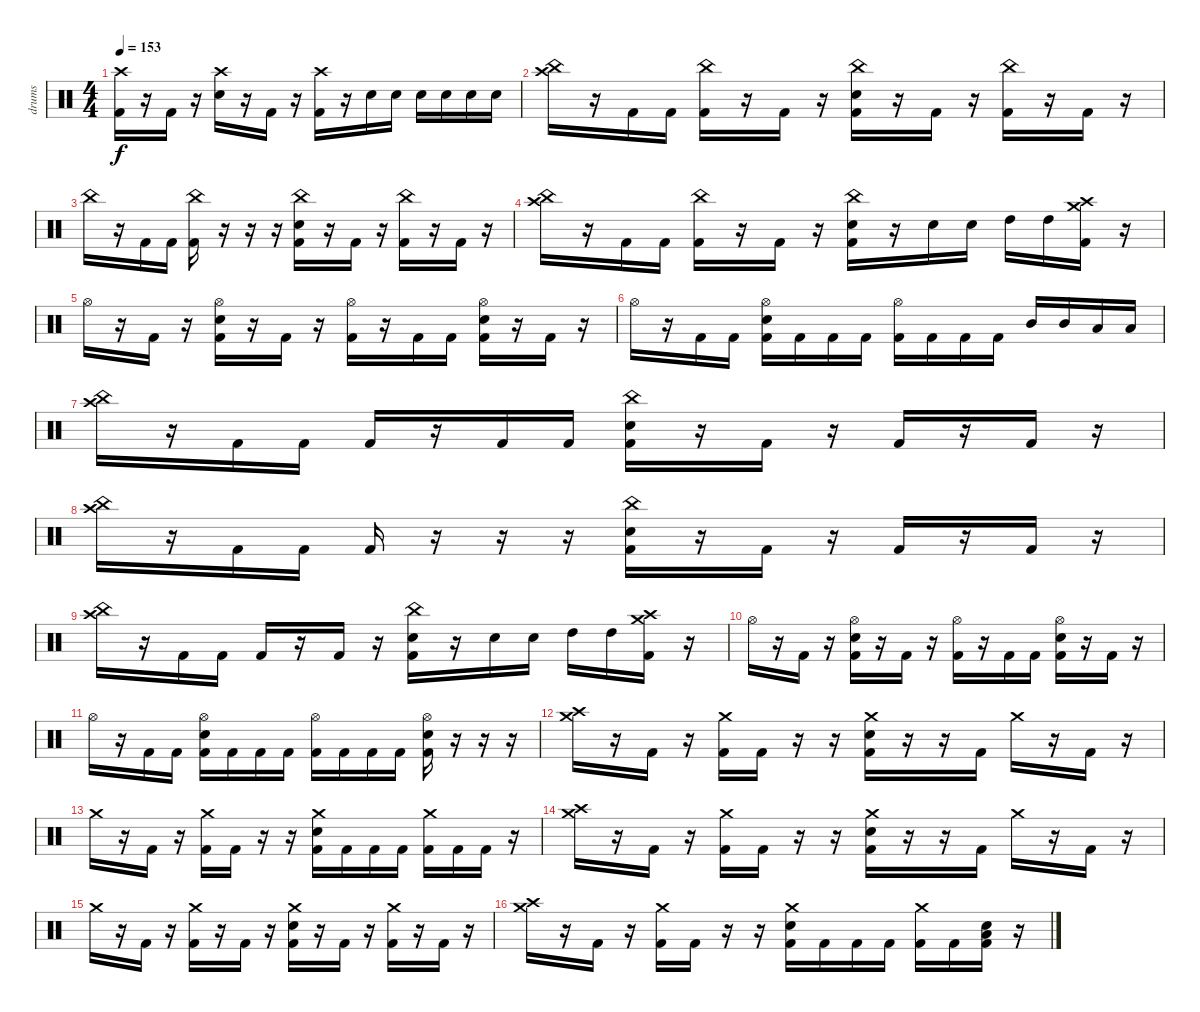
\track ("drums" "drums") {instrument percussion}
\staff {score}
\articulation defaults
\ts (4 4)
\tempo 153
\clef neutral
\ks c
("Crash high (hit)" "Kick (hit) 2").16{dy f} r.16 "Kick (hit) 2".16 r.16 ("Crash high (hit)" "Electric Snare (hit)").16 r.16 "Kick (hit) 2".16 r.16 ("Crash high (hit)" "Kick (hit) 2").16 r.16 "Electric Snare (hit)".16 "Electric Snare (hit)".16 "Electric Snare (hit)".16 "Electric Snare (hit)".16 "Electric Snare (hit)".16 "Electric Snare (hit)".16 |
("China (hit)" "Crash high (hit)").16 r.16 "Kick (hit) 2".16 "Kick (hit) 2".16 ("China (hit)" "Kick (hit) 2").16 r.16 "Kick (hit) 2".16 r.16 ("China (hit)" "Electric Snare (hit)" "Kick (hit) 2").16 r.16 "Kick (hit) 2".16 r.16 ("China (hit)" "Kick (hit) 2").16 r.16 "Kick (hit) 2".16 r.16 |
"China (hit)".16 r.16 "Kick (hit) 2".16 "Kick (hit) 2".16 ("China (hit)" "Kick (hit) 2").16 r.16 r.16 r.16 ("China (hit)" "Electric Snare (hit)" "Kick (hit) 2").16 r.16 "Kick (hit) 2".16 r.16 ("China (hit)" "Kick (hit) 2").16 r.16 "Kick (hit) 2".16 r.16 |
("China (hit)" "Crash high (hit)").16 r.16 "Kick (hit) 2".16 "Kick (hit) 2".16 ("China (hit)" "Kick (hit) 2").16 r.16 "Kick (hit) 2".16 r.16 ("China (hit)" "Electric Snare (hit)" "Kick (hit) 2").16 r.16 "Electric Snare (hit)".16 "Electric Snare (hit)".16 "High Tom (hit)".16 "High Tom (hit)".16 ("Crash medium (hit)" "Crash high (hit)" "Kick (hit) 2").16 r.16 |
"Hi-Hat (open)".16 r.16 "Kick (hit) 2".16 r.16 ("Hi-Hat (open)" "Electric Snare (hit)" "Kick (hit) 2").16 r.16 "Kick (hit) 2".16 r.16 ("Hi-Hat (open)" "Kick (hit) 2").16 r.16 "Kick (hit) 2".16 "Kick (hit) 2".16 ("Hi-Hat (open)" "Electric Snare (hit)" "Kick (hit) 2").16 r.16 "Kick (hit) 2".16 r.16 |
"Hi-Hat (open)".16 r.16 "Kick (hit) 2".16 "Kick (hit) 2".16 ("Hi-Hat (open)" "Electric Snare (hit)" "Kick (hit) 2").16 "Kick (hit) 2".16 "Kick (hit) 2".16 "Kick (hit) 2".16 ("Hi-Hat (open)" "Kick (hit) 2").16 "Kick (hit) 2".16 "Kick (hit) 2".16 "Kick (hit) 2".16 "Mid Tom (hit)".16 "Mid Tom (hit)".16 "Low Floor Tom (hit)".16 "Low Floor Tom (hit)".16 |
("China (hit)" "Crash high (hit)").16 r.16 "Kick (hit) 2".16 "Kick (hit) 2".16 "Kick (hit) 2".16 r.16 "Kick (hit) 2".16 "Kick (hit) 2".16 ("China (hit)" "Electric Snare (hit)" "Kick (hit) 2").16 r.16 "Kick (hit) 2".16 r.16 "Kick (hit) 2".16 r.16 "Kick (hit) 2".16 r.16 |
("China (hit)" "Crash high (hit)").16 r.16 "Kick (hit) 2".16 "Kick (hit) 2".16 "Kick (hit) 2".16 r.16 r.16 r.16 ("China (hit)" "Electric Snare (hit)" "Kick (hit) 2").16 r.16 "Kick (hit) 2".16 r.16 "Kick (hit) 2".16 r.16 "Kick (hit) 2".16 r.16 |
("China (hit)" "Crash high (hit)").16 r.16 "Kick (hit) 2".16 "Kick (hit) 2".16 "Kick (hit) 2".16 r.16 "Kick (hit) 2".16 r.16 ("China (hit)" "Electric Snare (hit)" "Kick (hit) 2").16 r.16 "Electric Snare (hit)".16 "Electric Snare (hit)".16 "High Tom (hit)".16 "High Tom (hit)".16 ("Crash medium (hit)" "Crash high (hit)" "Kick (hit) 2").16 r.16 |
"Hi-Hat (open)".16 r.16 "Kick (hit) 2".16 r.16 ("Hi-Hat (open)" "Electric Snare (hit)" "Kick (hit) 2").16 r.16 "Kick (hit) 2".16 r.16 ("Hi-Hat (open)" "Kick (hit) 2").16 r.16 "Kick (hit) 2".16 "Kick (hit) 2".16 ("Hi-Hat (open)" "Electric Snare (hit)" "Kick (hit) 2").16 r.16 "Kick (hit) 2".16 r.16 |
"Hi-Hat (open)".16 r.16 "Kick (hit) 2".16 "Kick (hit) 2".16 ("Hi-Hat (open)" "Electric Snare (hit)" "Kick (hit) 2").16 "Kick (hit) 2".16 "Kick (hit) 2".16 "Kick (hit) 2".16 ("Hi-Hat (open)" "Kick (hit) 2").16 "Kick (hit) 2".16 "Kick (hit) 2".16 "Kick (hit) 2".16 ("Hi-Hat (open)" "Electric Snare (hit)" "Kick (hit) 2").16 r.16 r.16 r.16 |
("Crash high (hit)" "Crash medium (hit)").16 r.16 "Kick (hit) 2".16 r.16 ("Crash medium (hit)" "Kick (hit) 2").16 "Kick (hit) 2".16 r.16 r.16 ("Crash medium (hit)" "Electric Snare (hit)" "Kick (hit) 2").16 r.16 r.16 "Kick (hit) 2".16 "Crash medium (hit)".16 r.16 "Kick (hit) 2".16 r.16 |
"Crash medium (hit)".16 r.16 "Kick (hit) 2".16 r.16 ("Crash medium (hit)" "Kick (hit) 2").16 "Kick (hit) 2".16 r.16 r.16 ("Crash medium (hit)" "Electric Snare (hit)" "Kick (hit) 2").16 "Kick (hit) 2".16 "Kick (hit) 2".16 "Kick (hit) 2".16 ("Crash medium (hit)" "Kick (hit) 2").16 "Kick (hit) 2".16 "Kick (hit) 2".16 r.16 |
("Crash high (hit)" "Crash medium (hit)").16 r.16 "Kick (hit) 2".16 r.16 ("Crash medium (hit)" "Kick (hit) 2").16 "Kick (hit) 2".16 r.16 r.16 ("Crash medium (hit)" "Electric Snare (hit)" "Kick (hit) 2").16 r.16 r.16 "Kick (hit) 2".16 "Crash medium (hit)".16 r.16 "Kick (hit) 2".16 r.16 |
"Crash medium (hit)".16 r.16 "Kick (hit) 2".16 r.16 ("Crash medium (hit)" "Kick (hit) 2").16 r.16 "Kick (hit) 2".16 r.16 ("Crash medium (hit)" "Electric Snare (hit)" "Kick (hit) 2").16 r.16 "Kick (hit) 2".16 r.16 ("Crash medium (hit)" "Kick (hit) 2").16 r.16 "Kick (hit) 2".16 r.16 |
("Crash medium (hit)" "Crash high (hit)").16 r.16 "Kick (hit) 2".16 r.16 ("Crash medium (hit)" "Kick (hit) 2").16 "Kick (hit) 2".16 r.16 r.16 ("Crash medium (hit)" "Electric Snare (hit)" "Kick (hit) 2").16 "Kick (hit) 2".16 "Kick (hit) 2".16 "Kick (hit) 2".16 ("Crash medium (hit)" "Kick (hit) 2").16 "Kick (hit) 2".16 ("Electric Snare (hit)" "Low Floor Tom (hit)" "Kick (hit) 2").16 r.16
